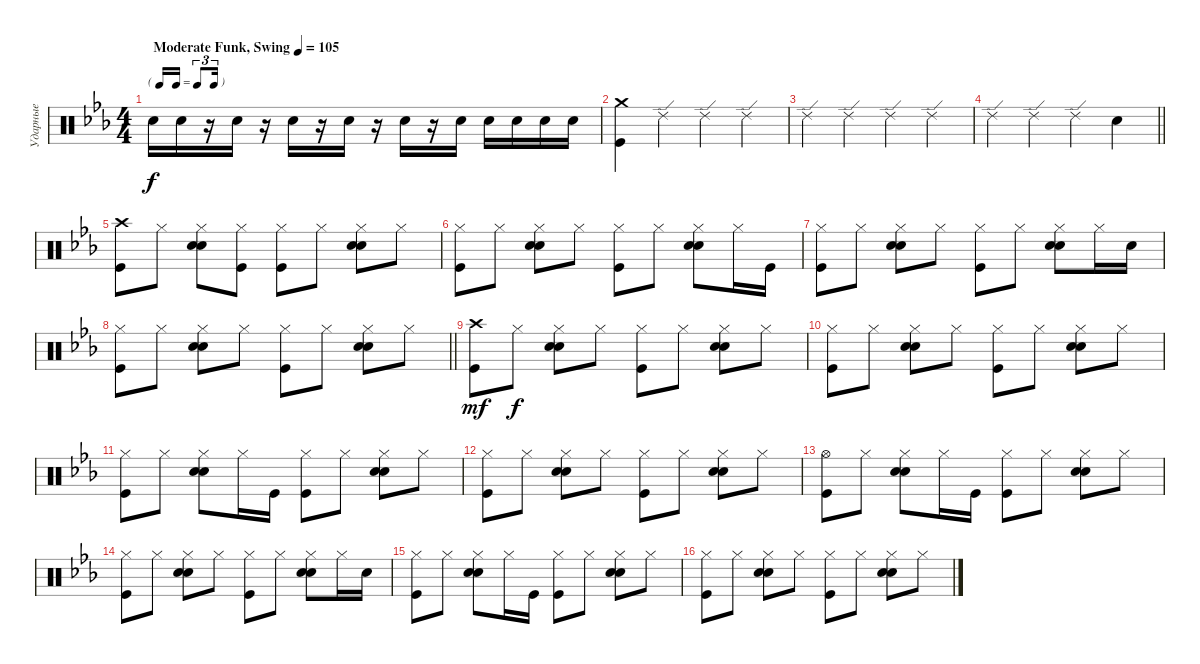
\track ("Ударные" "Ударные") {instrument percussion}
\staff {score}
\articulation defaults
\ts (4 4)
\tf triplet16th
\tempo (105 "Moderate Funk, Swing")
\clef neutral
\ks cminor "Snare (hit) 2".16{dy f} "Snare (hit) 2".16
r.16 "Snare (hit) 2".16 r.16 "Snare (hit) 2".16 r.16 "Snare (hit) 2".16 r.16 "Snare (hit) 2".16 r.16 "Snare (hit) 2".16 "Snare (hit) 2".16 "Snare (hit) 2".16 "Snare (hit) 2".16 "Snare (hit) 2".16 |
("Kick (hit)" "Crash medium (hit)").4 "Ride (edge) 2".4 "Ride (edge) 2".4 "Ride (edge) 2".4 |
"Ride (edge) 2".4 "Ride (edge) 2".4 "Ride (edge) 2".4 "Ride (edge) 2".4 |
\barLineRight lightlight "Ride (edge) 2".4 "Ride (edge) 2".4 "Ride (edge) 2".4 "Snare (hit) 2".4
|
("Kick (hit)" "Crash high (hit)").8 "Hi-Hat (closed)".8 ("Snare (hit) 2" "Hi-Hat (closed)" "Hand Clap (hit)").8 ("Hi-Hat (closed)" "Kick (hit)").8 ("Kick (hit)" "Hi-Hat (closed)").8 "Hi-Hat (closed)".8 ("Snare (hit) 2" "Hi-Hat (closed)" "Hand Clap (hit)").8 "Hi-Hat (closed)".8 |
("Kick (hit)" "Hi-Hat (closed)").8 "Hi-Hat (closed)".8 ("Snare (hit) 2" "Hi-Hat (closed)" "Hand Clap (hit)").8 "Hi-Hat (closed)".8 ("Kick (hit)" "Hi-Hat (closed)").8 "Hi-Hat (closed)".8 ("Snare (hit) 2" "Hi-Hat (closed)" "Hand Clap (hit)").8 "Hi-Hat (closed)".16 "Kick (hit)".16 |
("Kick (hit)" "Hi-Hat (closed)").8 "Hi-Hat (closed)".8 ("Snare (hit) 2" "Hi-Hat (closed)" "Hand Clap (hit)").8 "Hi-Hat (closed)".8 ("Kick (hit)" "Hi-Hat (closed)").8 "Hi-Hat (closed)".8 ("Snare (hit) 2" "Hi-Hat (closed)" "Hand Clap (hit)").8 "Hi-Hat (closed)".16 "Snare (hit) 2".16 |
\barLineRight lightlight
("Kick (hit)" "Hi-Hat (closed)").8 "Hi-Hat (closed)".8 ("Snare (hit) 2" "Hi-Hat (closed)" "Hand Clap (hit)").8 "Hi-Hat (closed)".8 ("Kick (hit)" "Hi-Hat (closed)").8 "Hi-Hat (closed)".8 ("Snare (hit) 2" "Hi-Hat (closed)" "Hand Clap (hit)").8 "Hi-Hat (closed)".8 |
("Kick (hit)" "Crash high (hit)").8{dy mf} "Hi-Hat (closed)".8{dy f} ("Snare (hit) 2" "Hi-Hat (closed)" "Hand Clap (hit)").8 "Hi-Hat (closed)".8 ("Kick (hit)" "Hi-Hat (closed)").8 "Hi-Hat (closed)".8 ("Snare (hit) 2" "Hi-Hat (closed)" "Hand Clap (hit)").8 "Hi-Hat (closed)".8 |
("Kick (hit)" "Hi-Hat (closed)").8 "Hi-Hat (closed)".8 ("Snare (hit) 2" "Hi-Hat (closed)" "Hand Clap (hit)").8 "Hi-Hat (closed)".8 ("Kick (hit)" "Hi-Hat (closed)").8 "Hi-Hat (closed)".8 ("Snare (hit) 2" "Hi-Hat (closed)" "Hand Clap (hit)").8 "Hi-Hat (closed)".8 |
("Kick (hit)" "Hi-Hat (closed)").8 "Hi-Hat (closed)".8 ("Snare (hit) 2" "Hi-Hat (closed)" "Hand Clap (hit)").8 "Hi-Hat (closed)".16 "Kick (hit)".16 ("Kick (hit)" "Hi-Hat (closed)").8 "Hi-Hat (closed)".8 ("Snare (hit) 2" "Hi-Hat (closed)" "Hand Clap (hit)").8 "Hi-Hat (closed)".8 |
("Kick (hit)" "Hi-Hat (closed)").8 "Hi-Hat (closed)".8 ("Snare (hit) 2" "Hi-Hat (closed)" "Hand Clap (hit)").8 "Hi-Hat (closed)".8 ("Kick (hit)" "Hi-Hat (closed)").8 "Hi-Hat (closed)".8 ("Snare (hit) 2" "Hi-Hat (closed)" "Hand Clap (hit)").8 "Hi-Hat (closed)".8 |
("Kick (hit)" "Hi-Hat (open)").8 "Hi-Hat (closed)".8 ("Snare (hit) 2" "Hi-Hat (closed)" "Hand Clap (hit)").8 "Hi-Hat (closed)".16 "Kick (hit)".16 ("Kick (hit)" "Hi-Hat (closed)").8 "Hi-Hat (closed)".8 ("Snare (hit) 2" "Hi-Hat (closed)" "Hand Clap (hit)").8 "Hi-Hat (closed)".8 |
("Kick (hit)" "Hi-Hat (closed)").8 "Hi-Hat (closed)".8 ("Snare (hit) 2" "Hi-Hat (closed)" "Hand Clap (hit)").8 "Hi-Hat (closed)".8 ("Kick (hit)" "Hi-Hat (closed)").8 "Hi-Hat (closed)".8 ("Snare (hit) 2" "Hi-Hat (closed)" "Hand Clap (hit)").8 "Hi-Hat (closed)".16 "Snare (hit) 2".16 |
("Kick (hit)" "Hi-Hat (closed)").8 "Hi-Hat (closed)".8 ("Snare (hit) 2" "Hi-Hat (closed)" "Hand Clap (hit)").8 "Hi-Hat (closed)".16 "Kick (hit)".16 ("Kick (hit)" "Hi-Hat (closed)").8 "Hi-Hat (closed)".8 ("Snare (hit) 2" "Hi-Hat (closed)" "Hand Clap (hit)").8 "Hi-Hat (closed)".8 |
("Kick (hit)" "Hi-Hat (closed)").8 "Hi-Hat (closed)".8 ("Snare (hit) 2" "Hi-Hat (closed)" "Hand Clap (hit)").8 "Hi-Hat (closed)".8 ("Kick (hit)" "Hi-Hat (closed)").8 "Hi-Hat (closed)".8 ("Snare (hit) 2" "Hi-Hat (closed)" "Hand Clap (hit)").8 "Hi-Hat (closed)".8
